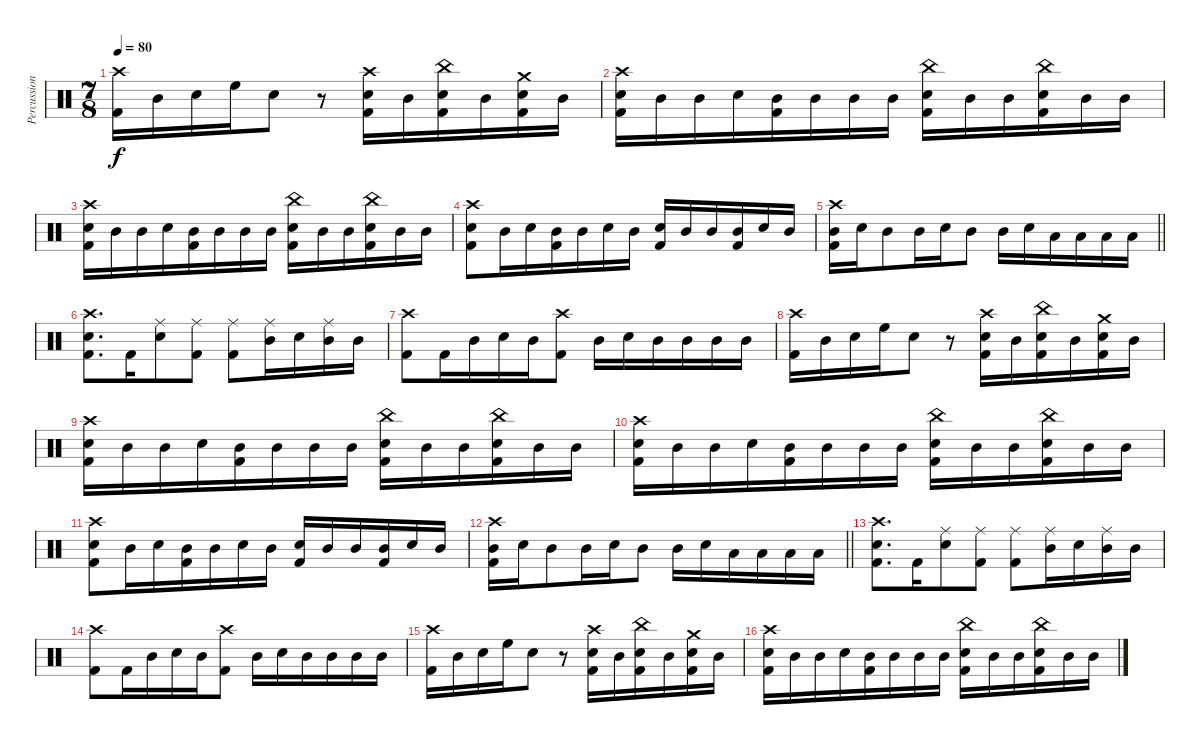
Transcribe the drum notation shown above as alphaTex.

\track ("Percussions" "Percussion") {instrument percussion}
\staff {score}
\articulation defaults
\ts (7 8)
\tempo 80
\clef neutral
\ks c
("Crash high (hit)" "Kick (hit) 2").16{dy f} "Mid Tom (hit)".16 "Snare (hit) 2".16 "High Floor Tom (hit)".16 "Snare (hit) 2".8 r.8 ("Crash high (hit)" "Snare (hit) 2" "Kick (hit) 2").16 "Mid Tom (hit)".16 ("China (hit)" "Snare (hit) 2" "Kick (hit) 2").16 "Mid Tom (hit)".16 ("Crash medium (hit)" "Snare (hit) 2" "Kick (hit) 2").16 "Mid Tom (hit)".16 |
("Crash high (hit)" "Snare (hit) 2" "Kick (hit) 2").16 "Mid Tom (hit)".16 "Mid Tom (hit)".16 "Snare (hit) 2".16 ("Mid Tom (hit)" "Kick (hit) 2").16 "Mid Tom (hit)".16 "Mid Tom (hit)".16 "Mid Tom (hit)".16 ("China (hit)" "Snare (hit) 2" "Kick (hit) 2").16 "Mid Tom (hit)".16 "Mid Tom (hit)".16 ("China (hit)" "Snare (hit) 2" "Kick (hit) 2").16 "Mid Tom (hit)".16 "Mid Tom (hit)".16 |
("Crash high (hit)" "Snare (hit) 2" "Kick (hit) 2").16 "Mid Tom (hit)".16 "Mid Tom (hit)".16 "Snare (hit) 2".16 ("Mid Tom (hit)" "Kick (hit) 2").16 "Mid Tom (hit)".16 "Mid Tom (hit)".16 "Mid Tom (hit)".16 ("China (hit)" "Snare (hit) 2" "Kick (hit) 2").16 "Mid Tom (hit)".16 "Mid Tom (hit)".16 ("China (hit)" "Snare (hit) 2" "Kick (hit) 2").16 "Mid Tom (hit)".16 "Mid Tom (hit)".16 |
("Crash high (hit)" "Snare (hit) 2" "Kick (hit) 2").8 "Mid Tom (hit)".16 "Snare (hit) 2".16 ("Mid Tom (hit)" "Kick (hit) 2").16 "Mid Tom (hit)".16 "Snare (hit) 2".16 "Mid Tom (hit)".16 ("Snare (hit) 2" "Kick (hit) 2").16 "Mid Tom (hit)".16 "Mid Tom (hit)".16 ("Mid Tom (hit)" "Kick (hit) 2").16 "Snare (hit) 2".16 "Mid Tom (hit)".16 |
\barLineRight lightlight
("Crash high (hit)" "Mid Tom (hit)" "Kick (hit) 2").16 "Snare (hit) 2".16 "Mid Tom (hit)".8 "Mid Tom (hit)".16 "Snare (hit) 2".16 "Mid Tom (hit)".8 "Mid Tom (hit)".16 "Snare (hit) 2".16 "Low Tom (hit)".16 "Low Tom (hit)".16 "Low Floor Tom (hit)".16 "Low Floor Tom (hit)".16 |
("Crash high (hit)" "Snare (hit) 2" "Kick (hit) 2").8{d volume 13} "Kick (hit) 2".16 ("Ride (middle)" "Snare (hit) 2").8 ("Ride (middle)" "Kick (hit) 2").8 ("Ride (middle)" "Kick (hit) 2").8 ("Ride (middle)" "Mid Tom (hit)").16 "Snare (hit) 2".16 ("Ride (middle)" "Mid Tom (hit)").16 "Mid Tom (hit)".16 |
("Crash high (hit)" "Kick (hit) 2").8 "Kick (hit) 2".16 "Mid Tom (hit)".16 "Snare (hit) 2".16 "Mid Tom (hit)".16 ("Crash high (hit)" "Kick (hit) 2").8 "Mid Tom (hit)".16 "Snare (hit) 2".16 "Mid Tom (hit)".16 "Mid Tom (hit)".16 "Mid Tom (hit)".16 "Mid Tom (hit)".16 |
("Crash high (hit)" "Kick (hit) 2").16 "Mid Tom (hit)".16 "Snare (hit) 2".16 "High Floor Tom (hit)".16 "Snare (hit) 2".8 r.8 ("Crash high (hit)" "Snare (hit) 2" "Kick (hit) 2").16 "Mid Tom (hit)".16 ("China (hit)" "Snare (hit) 2" "Kick (hit) 2").16 "Mid Tom (hit)".16 ("Crash medium (hit)" "Snare (hit) 2" "Kick (hit) 2").16 "Mid Tom (hit)".16 |
("Crash high (hit)" "Snare (hit) 2" "Kick (hit) 2").16 "Mid Tom (hit)".16 "Mid Tom (hit)".16 "Snare (hit) 2".16 ("Mid Tom (hit)" "Kick (hit) 2").16 "Mid Tom (hit)".16 "Mid Tom (hit)".16 "Mid Tom (hit)".16 ("China (hit)" "Snare (hit) 2" "Kick (hit) 2").16 "Mid Tom (hit)".16 "Mid Tom (hit)".16 ("China (hit)" "Snare (hit) 2" "Kick (hit) 2").16 "Mid Tom (hit)".16 "Mid Tom (hit)".16 |
("Crash high (hit)" "Snare (hit) 2" "Kick (hit) 2").16 "Mid Tom (hit)".16 "Mid Tom (hit)".16 "Snare (hit) 2".16 ("Mid Tom (hit)" "Kick (hit) 2").16 "Mid Tom (hit)".16 "Mid Tom (hit)".16 "Mid Tom (hit)".16 ("China (hit)" "Snare (hit) 2" "Kick (hit) 2").16 "Mid Tom (hit)".16 "Mid Tom (hit)".16 ("China (hit)" "Snare (hit) 2" "Kick (hit) 2").16 "Mid Tom (hit)".16 "Mid Tom (hit)".16 |
("Crash high (hit)" "Snare (hit) 2" "Kick (hit) 2").8 "Mid Tom (hit)".16 "Snare (hit) 2".16 ("Mid Tom (hit)" "Kick (hit) 2").16 "Mid Tom (hit)".16 "Snare (hit) 2".16 "Mid Tom (hit)".16 ("Snare (hit) 2" "Kick (hit) 2").16 "Mid Tom (hit)".16 "Mid Tom (hit)".16 ("Mid Tom (hit)" "Kick (hit) 2").16 "Snare (hit) 2".16 "Mid Tom (hit)".16 |
\barLineRight lightlight
("Crash high (hit)" "Mid Tom (hit)" "Kick (hit) 2").16 "Snare (hit) 2".16 "Mid Tom (hit)".8 "Mid Tom (hit)".16 "Snare (hit) 2".16 "Mid Tom (hit)".8 "Mid Tom (hit)".16 "Snare (hit) 2".16 "Low Tom (hit)".16 "Low Tom (hit)".16 "Low Floor Tom (hit)".16 "Low Floor Tom (hit)".16 |
("Crash high (hit)" "Snare (hit) 2" "Kick (hit) 2").8{d volume 15} "Kick (hit) 2".16 ("Ride (middle)" "Snare (hit) 2").8 ("Ride (middle)" "Kick (hit) 2").8 ("Ride (middle)" "Kick (hit) 2").8 ("Ride (middle)" "Mid Tom (hit)").16 "Snare (hit) 2".16 ("Ride (middle)" "Mid Tom (hit)").16 "Mid Tom (hit)".16 |
("Crash high (hit)" "Kick (hit) 2").8 "Kick (hit) 2".16 "Mid Tom (hit)".16 "Snare (hit) 2".16 "Mid Tom (hit)".16 ("Crash high (hit)" "Kick (hit) 2").8 "Mid Tom (hit)".16 "Snare (hit) 2".16 "Mid Tom (hit)".16 "Mid Tom (hit)".16 "Mid Tom (hit)".16 "Mid Tom (hit)".16 |
("Crash high (hit)" "Kick (hit) 2").16 "Mid Tom (hit)".16 "Snare (hit) 2".16 "High Floor Tom (hit)".16 "Snare (hit) 2".8 r.8 ("Crash high (hit)" "Snare (hit) 2" "Kick (hit) 2").16 "Mid Tom (hit)".16 ("China (hit)" "Snare (hit) 2" "Kick (hit) 2").16 "Mid Tom (hit)".16 ("Crash medium (hit)" "Snare (hit) 2" "Kick (hit) 2").16 "Mid Tom (hit)".16 |
("Crash high (hit)" "Snare (hit) 2" "Kick (hit) 2").16 "Mid Tom (hit)".16 "Mid Tom (hit)".16 "Snare (hit) 2".16 ("Mid Tom (hit)" "Kick (hit) 2").16 "Mid Tom (hit)".16 "Mid Tom (hit)".16 "Mid Tom (hit)".16 ("China (hit)" "Snare (hit) 2" "Kick (hit) 2").16 "Mid Tom (hit)".16 "Mid Tom (hit)".16 ("China (hit)" "Snare (hit) 2" "Kick (hit) 2").16 "Mid Tom (hit)".16 "Mid Tom (hit)".16
